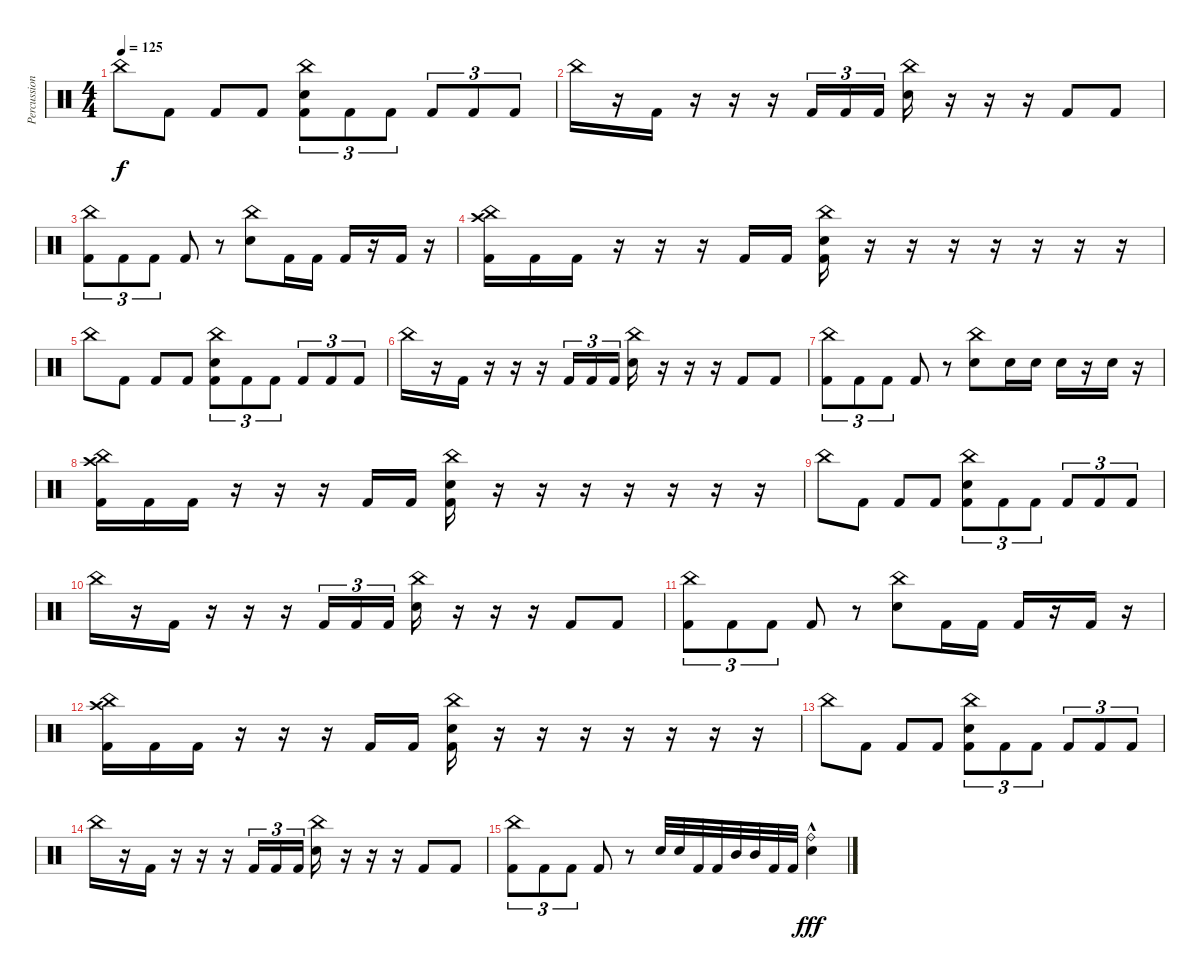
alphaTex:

\track ("Percussion" "Percussion") {instrument percussion}
\staff {score}
\articulation defaults
\ts (4 4)
\tempo 125
\clef neutral
\ks c "China (hit)".8{dy f} "Kick (hit) 2".8 "Kick (hit) 2".8 "Kick (hit) 2".8
("China (hit)" "Electric Snare (hit)" "Kick (hit) 2").8{tu (3 2)} "Kick (hit) 2".8{tu (3 2)} "Kick (hit) 2".8{tu (3 2)} "Kick (hit) 2".8{tu (3 2)} "Kick (hit) 2".8{tu (3 2)} "Kick (hit) 2".8{tu (3 2)} |
"China (hit)".16 r.16 "Kick (hit) 2".16 r.16 r.16 r.16 "Kick (hit) 2".16{tu (3 2)} "Kick (hit) 2".16{tu (3 2)} "Kick (hit) 2".16{tu (3 2)} ("China (hit)" "Electric Snare (hit)").16 r.16 r.16 r.16 "Kick (hit) 2".8 "Kick (hit) 2".8 |
("China (hit)" "Kick (hit) 2").8{tu (3 2)} "Kick (hit) 2".8{tu (3 2)} "Kick (hit) 2".8{tu (3 2)} "Kick (hit) 2".8 r.8 ("China (hit)" "Electric Snare (hit)").8 "Kick (hit) 2".16 "Kick (hit) 2".16 "Kick (hit) 2".16 r.16 "Kick (hit) 2".16 r.16 |
("China (hit)" "Crash high (hit)" "Kick (hit) 2").16 "Kick (hit) 2".16 "Kick (hit) 2".16 r.16 r.16 r.16 "Kick (hit) 2".16 "Kick (hit) 2".16 ("China (hit)" "Electric Snare (hit)" "Kick (hit) 2").16 r.16 r.16 r.16 r.16 r.16 r.16 r.16 |
"China (hit)".8 "Kick (hit) 2".8 "Kick (hit) 2".8 "Kick (hit) 2".8 ("China (hit)" "Electric Snare (hit)" "Kick (hit) 2").8{tu (3 2)} "Kick (hit) 2".8{tu (3 2)} "Kick (hit) 2".8{tu (3 2)} "Kick (hit) 2".8{tu (3 2)} "Kick (hit) 2".8{tu (3 2)} "Kick (hit) 2".8{tu (3 2)} |
"China (hit)".16 r.16 "Kick (hit) 2".16 r.16 r.16 r.16 "Kick (hit) 2".16{tu (3 2)} "Kick (hit) 2".16{tu (3 2)} "Kick (hit) 2".16{tu (3 2)} ("China (hit)" "Electric Snare (hit)").16 r.16 r.16 r.16 "Kick (hit) 2".8 "Kick (hit) 2".8 |
("China (hit)" "Kick (hit) 2").8{tu (3 2)} "Kick (hit) 2".8{tu (3 2)} "Kick (hit) 2".8{tu (3 2)} "Kick (hit) 2".8 r.8 ("China (hit)" "Electric Snare (hit)").8 "Electric Snare (hit)".16 "Electric Snare (hit)".16 "Electric Snare (hit)".16 r.16 "Electric Snare (hit)".16 r.16 |
("China (hit)" "Crash high (hit)" "Kick (hit) 2").16 "Kick (hit) 2".16 "Kick (hit) 2".16 r.16 r.16 r.16 "Kick (hit) 2".16 "Kick (hit) 2".16 ("China (hit)" "Electric Snare (hit)" "Kick (hit) 2").16 r.16 r.16 r.16 r.16 r.16 r.16 r.16 |
"China (hit)".8 "Kick (hit) 2".8 "Kick (hit) 2".8 "Kick (hit) 2".8 ("China (hit)" "Electric Snare (hit)" "Kick (hit) 2").8{tu (3 2)} "Kick (hit) 2".8{tu (3 2)} "Kick (hit) 2".8{tu (3 2)} "Kick (hit) 2".8{tu (3 2)} "Kick (hit) 2".8{tu (3 2)} "Kick (hit) 2".8{tu (3 2)} |
"China (hit)".16 r.16 "Kick (hit) 2".16 r.16 r.16 r.16 "Kick (hit) 2".16{tu (3 2)} "Kick (hit) 2".16{tu (3 2)} "Kick (hit) 2".16{tu (3 2)} ("China (hit)" "Electric Snare (hit)").16 r.16 r.16 r.16 "Kick (hit) 2".8 "Kick (hit) 2".8 |
("China (hit)" "Kick (hit) 2").8{tu (3 2)} "Kick (hit) 2".8{tu (3 2)} "Kick (hit) 2".8{tu (3 2)} "Kick (hit) 2".8 r.8 ("China (hit)" "Electric Snare (hit)").8 "Kick (hit) 2".16 "Kick (hit) 2".16 "Kick (hit) 2".16 r.16 "Kick (hit) 2".16 r.16 |
("China (hit)" "Crash high (hit)" "Kick (hit) 2").16 "Kick (hit) 2".16 "Kick (hit) 2".16 r.16 r.16 r.16 "Kick (hit) 2".16 "Kick (hit) 2".16 ("China (hit)" "Electric Snare (hit)" "Kick (hit) 2").16 r.16 r.16 r.16 r.16 r.16 r.16 r.16 |
"China (hit)".8 "Kick (hit) 2".8 "Kick (hit) 2".8 "Kick (hit) 2".8 ("China (hit)" "Electric Snare (hit)" "Kick (hit) 2").8{tu (3 2)} "Kick (hit) 2".8{tu (3 2)} "Kick (hit) 2".8{tu (3 2)} "Kick (hit) 2".8{tu (3 2)} "Kick (hit) 2".8{tu (3 2)} "Kick (hit) 2".8{tu (3 2)} |
"China (hit)".16 r.16 "Kick (hit) 2".16 r.16 r.16 r.16 "Kick (hit) 2".16{tu (3 2)} "Kick (hit) 2".16{tu (3 2)} "Kick (hit) 2".16{tu (3 2)} ("China (hit)" "Electric Snare (hit)").16 r.16 r.16 r.16 "Kick (hit) 2".8 "Kick (hit) 2".8 |
("China (hit)" "Kick (hit) 2").8{tu (3 2)} "Kick (hit) 2".8{tu (3 2)} "Kick (hit) 2".8{tu (3 2)} "Kick (hit) 2".8 r.8 "Electric Snare (hit)".32 "Electric Snare (hit)".32 "Kick (hit) 2".32 "Kick (hit) 2".32 "Mid Tom (hit)".32 "Mid Tom (hit)".32 "Kick (hit) 2".32 "Kick (hit) 2".32 ("Ride (bell)"{hac} "Electric Snare (hit)").4{dy fff}
